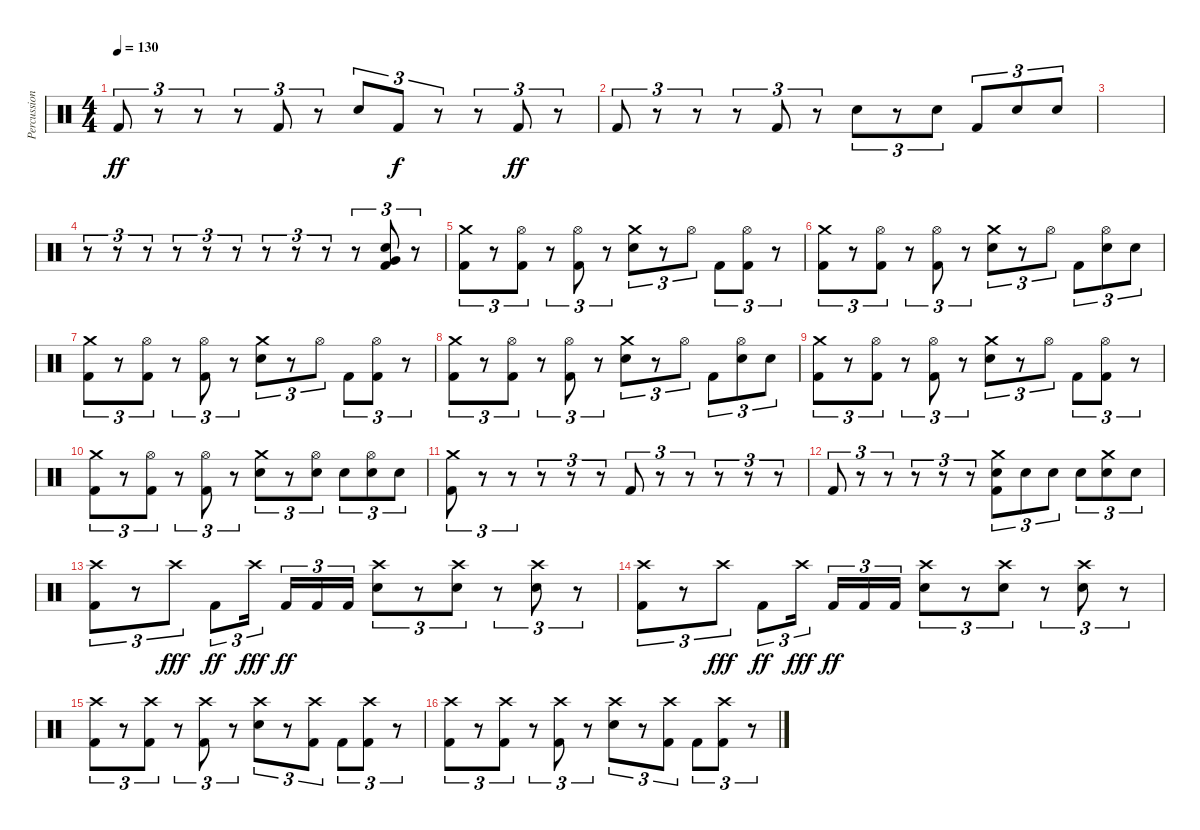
\track ("Percussion" "Percussion") {instrument percussion bank 95}
\staff {score}
\articulation defaults
\ts (4 4)
\tempo 130
\clef neutral
\ks c "Kick (hit) 2".8{tu (3 2) dy ff}
r.8{tu (3 2)} r.8{tu (3 2)} r.8{tu (3 2)} "Kick (hit) 2".8{tu (3 2)} r.8{tu (3 2)} "Snare (hit) 2".8{tu (3 2)} "Kick (hit) 2".8{tu (3 2) dy f} r.8{tu (3 2)} r.8{tu (3 2)} "Kick (hit) 2".8{tu (3 2) dy ff} r.8{tu (3 2)} |
"Kick (hit) 2".8{tu (3 2)} r.8{tu (3 2)} r.8{tu (3 2)} r.8{tu (3 2)} "Kick (hit) 2".8{tu (3 2)} r.8{tu (3 2)} "Snare (hit) 2".8{tu (3 2)} r.8{tu (3 2)} "Snare (hit) 2".8{tu (3 2)} "Kick (hit) 2".8{tu (3 2)} "Snare (hit) 2".8{tu (3 2)} "Snare (hit) 2".8{tu (3 2)} |
|
r.8{tu (3 2)} r.8{tu (3 2)} r.8{tu (3 2)} r.8{tu (3 2)} r.8{tu (3 2)} r.8{tu (3 2)} r.8{tu (3 2)} r.8{tu (3 2)} r.8{tu (3 2)} r.8{tu (3 2)} ("Snare (hit) 2" "Very Low Tom (hit)" "Kick (hit) 2").8{tu (3 2)} r.8{tu (3 2)} |
("Crash medium (hit)" "Kick (hit) 2").8{tu (3 2)} r.8{tu (3 2)} ("Hi-Hat (open)" "Kick (hit) 2").8{tu (3 2)} r.8{tu (3 2)} ("Hi-Hat (open)" "Kick (hit) 2").8{tu (3 2)} r.8{tu (3 2)} ("Crash medium (hit)" "Snare (hit) 2").8{tu (3 2)} r.8{tu (3 2)} "Hi-Hat (open)".8{tu (3 2)} "Kick (hit) 2".8{tu (3 2)} ("Hi-Hat (open)" "Kick (hit) 2").8{tu (3 2)} r.8{tu (3 2)} |
("Crash medium (hit)" "Kick (hit) 2").8{tu (3 2)} r.8{tu (3 2)} ("Hi-Hat (open)" "Kick (hit) 2").8{tu (3 2)} r.8{tu (3 2)} ("Hi-Hat (open)" "Kick (hit) 2").8{tu (3 2)} r.8{tu (3 2)} ("Crash medium (hit)" "Snare (hit) 2").8{tu (3 2)} r.8{tu (3 2)} "Hi-Hat (open)".8{tu (3 2)} "Kick (hit) 2".8{tu (3 2)} ("Hi-Hat (open)" "Snare (hit) 2").8{tu (3 2)} "Snare (hit) 2".8{tu (3 2)} |
("Crash medium (hit)" "Kick (hit) 2").8{tu (3 2)} r.8{tu (3 2)} ("Hi-Hat (open)" "Kick (hit) 2").8{tu (3 2)} r.8{tu (3 2)} ("Hi-Hat (open)" "Kick (hit) 2").8{tu (3 2)} r.8{tu (3 2)} ("Crash medium (hit)" "Snare (hit) 2").8{tu (3 2)} r.8{tu (3 2)} "Hi-Hat (open)".8{tu (3 2)} "Kick (hit) 2".8{tu (3 2)} ("Hi-Hat (open)" "Kick (hit) 2").8{tu (3 2)} r.8{tu (3 2)} |
("Crash medium (hit)" "Kick (hit) 2").8{tu (3 2)} r.8{tu (3 2)} ("Hi-Hat (open)" "Kick (hit) 2").8{tu (3 2)} r.8{tu (3 2)} ("Hi-Hat (open)" "Kick (hit) 2").8{tu (3 2)} r.8{tu (3 2)} ("Crash medium (hit)" "Snare (hit) 2").8{tu (3 2)} r.8{tu (3 2)} "Hi-Hat (open)".8{tu (3 2)} "Kick (hit) 2".8{tu (3 2)} ("Hi-Hat (open)" "Snare (hit) 2").8{tu (3 2)} "Snare (hit) 2".8{tu (3 2)} |
("Crash medium (hit)" "Kick (hit) 2").8{tu (3 2)} r.8{tu (3 2)} ("Hi-Hat (open)" "Kick (hit) 2").8{tu (3 2)} r.8{tu (3 2)} ("Hi-Hat (open)" "Kick (hit) 2").8{tu (3 2)} r.8{tu (3 2)} ("Crash medium (hit)" "Snare (hit) 2").8{tu (3 2)} r.8{tu (3 2)} "Hi-Hat (open)".8{tu (3 2)} "Kick (hit) 2".8{tu (3 2)} ("Hi-Hat (open)" "Kick (hit) 2").8{tu (3 2)} r.8{tu (3 2)} |
("Crash medium (hit)" "Kick (hit) 2").8{tu (3 2)} r.8{tu (3 2)} ("Hi-Hat (open)" "Kick (hit) 2").8{tu (3 2)} r.8{tu (3 2)} ("Hi-Hat (open)" "Kick (hit) 2").8{tu (3 2)} r.8{tu (3 2)} ("Crash medium (hit)" "Snare (hit) 2").8{tu (3 2)} r.8{tu (3 2)} ("Hi-Hat (open)" "Snare (hit) 2").8{tu (3 2)} "Snare (hit) 2".8{tu (3 2)} ("Hi-Hat (open)" "Snare (hit) 2").8{tu (3 2)} "Snare (hit) 2".8{tu (3 2)} |
("Crash medium (hit)" "Kick (hit) 2").8{tu (3 2)} r.8{tu (3 2)} r.8{tu (3 2)} r.8{tu (3 2)} r.8{tu (3 2)} r.8{tu (3 2)} "Kick (hit) 2".8{tu (3 2)} r.8{tu (3 2)} r.8{tu (3 2)} r.8{tu (3 2)} r.8{tu (3 2)} r.8{tu (3 2)} |
"Kick (hit) 2".8{tu (3 2)} r.8{tu (3 2)} r.8{tu (3 2)} r.8{tu (3 2)} r.8{tu (3 2)} r.8{tu (3 2)} ("Crash medium (hit)" "Snare (hit) 2" "Kick (hit) 2").8{tu (3 2)} "Snare (hit) 2".8{tu (3 2)} "Snare (hit) 2".8{tu (3 2)} "Snare (hit) 2".8{tu (3 2)} ("Crash medium (hit)" "Snare (hit) 2").8{tu (3 2)} "Snare (hit) 2".8{tu (3 2)} |
("Crash high (hit)" "Kick (hit) 2").8{tu (3 2)} r.8{tu (3 2)} "Crash high (hit)".8{tu (3 2) dy fff} "Kick (hit) 2".8{tu (3 2) dy ff} "Crash high (hit)".16{tu (3 2) dy fff beam splitsecondary} "Kick (hit) 2".16{tu (3 2) dy ff} "Kick (hit) 2".16{tu (3 2)} "Kick (hit) 2".16{tu (3 2)} ("Crash high (hit)" "Snare (hit) 2").8{tu (3 2)} r.8{tu (3 2)} ("Crash high (hit)" "Snare (hit) 2").8{tu (3 2)} r.8{tu (3 2)} ("Crash high (hit)" "Snare (hit) 2").8{tu (3 2)} r.8{tu (3 2)} |
("Crash high (hit)" "Kick (hit) 2").8{tu (3 2)} r.8{tu (3 2)} "Crash high (hit)".8{tu (3 2) dy fff} "Kick (hit) 2".8{tu (3 2) dy ff} "Crash high (hit)".16{tu (3 2) dy fff beam splitsecondary} "Kick (hit) 2".16{tu (3 2) dy ff} "Kick (hit) 2".16{tu (3 2)} "Kick (hit) 2".16{tu (3 2)} ("Crash high (hit)" "Snare (hit) 2").8{tu (3 2)} r.8{tu (3 2)} ("Crash high (hit)" "Snare (hit) 2").8{tu (3 2)} r.8{tu (3 2)} ("Crash high (hit)" "Snare (hit) 2").8{tu (3 2)} r.8{tu (3 2)} |
("Crash high (hit)" "Kick (hit) 2").8{tu (3 2)} r.8{tu (3 2)} ("Crash high (hit)" "Kick (hit) 2").8{tu (3 2)} r.8{tu (3 2)} ("Crash high (hit)" "Kick (hit) 2").8{tu (3 2)} r.8{tu (3 2)} ("Crash high (hit)" "Snare (hit) 2").8{tu (3 2)} r.8{tu (3 2)} ("Crash high (hit)" "Kick (hit) 2").8{tu (3 2)} "Kick (hit) 2".8{tu (3 2)} ("Crash high (hit)" "Kick (hit) 2").8{tu (3 2)} r.8{tu (3 2)} |
("Crash high (hit)" "Kick (hit) 2").8{tu (3 2)} r.8{tu (3 2)} ("Crash high (hit)" "Kick (hit) 2").8{tu (3 2)} r.8{tu (3 2)} ("Crash high (hit)" "Kick (hit) 2").8{tu (3 2)} r.8{tu (3 2)} ("Crash high (hit)" "Snare (hit) 2").8{tu (3 2)} r.8{tu (3 2)} ("Crash high (hit)" "Kick (hit) 2").8{tu (3 2)} "Kick (hit) 2".8{tu (3 2)} ("Crash high (hit)" "Kick (hit) 2").8{tu (3 2)} r.8{tu (3 2)}
